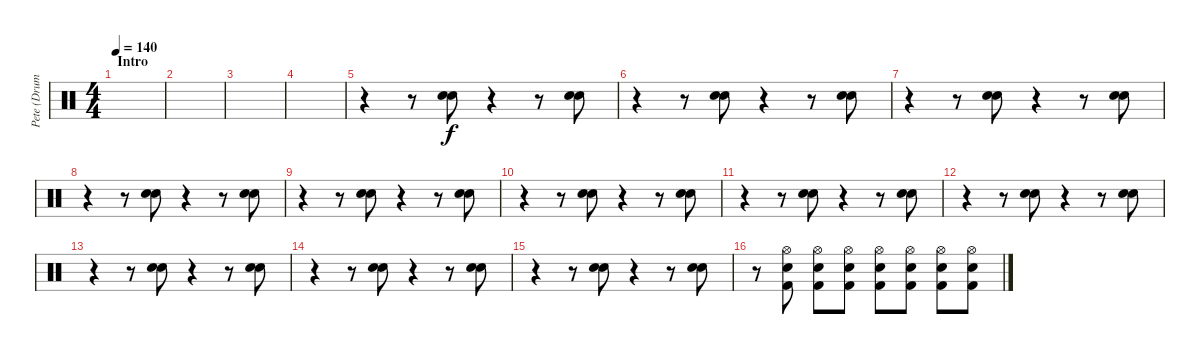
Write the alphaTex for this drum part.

\track ("Pete (Drums)" "Pete (Drum") {instrument percussion}
\staff {score}
\articulation defaults
\ts (4 4)
\section ("" "Intro")
\tempo 140
\clef neutral
\ks c
|
|
|
|
r.4 r.8 ("Snare (hit) 2" "Snare (hit) 2").8 r.4 r.8 ("Snare (hit) 2" "Snare (hit) 2").8 |
r.4 r.8 ("Snare (hit) 2" "Snare (hit) 2").8 r.4 r.8 ("Snare (hit) 2" "Snare (hit) 2").8 |
r.4 r.8 ("Snare (hit) 2" "Snare (hit) 2").8 r.4 r.8 ("Snare (hit) 2" "Snare (hit) 2").8 |
r.4 r.8 ("Snare (hit) 2" "Snare (hit) 2").8 r.4 r.8 ("Snare (hit) 2" "Snare (hit) 2").8 |
r.4 r.8 ("Snare (hit) 2" "Snare (hit) 2").8 r.4 r.8 ("Snare (hit) 2" "Snare (hit) 2").8 |
r.4 r.8 ("Snare (hit) 2" "Snare (hit) 2").8 r.4 r.8 ("Snare (hit) 2" "Snare (hit) 2").8 |
r.4 r.8 ("Snare (hit) 2" "Snare (hit) 2").8 r.4 r.8 ("Snare (hit) 2" "Snare (hit) 2").8 |
r.4 r.8 ("Snare (hit) 2" "Snare (hit) 2").8 r.4 r.8 ("Snare (hit) 2" "Snare (hit) 2").8 |
r.4 r.8 ("Snare (hit) 2" "Snare (hit) 2").8 r.4 r.8 ("Snare (hit) 2" "Snare (hit) 2").8 |
r.4 r.8 ("Snare (hit) 2" "Snare (hit) 2").8 r.4 r.8 ("Snare (hit) 2" "Snare (hit) 2").8 |
r.4 r.8 ("Snare (hit) 2" "Snare (hit) 2").8 r.4 r.8 ("Snare (hit) 2" "Snare (hit) 2").8 |
r.8 ("Snare (hit) 2" "Kick (hit) 2" "Hi-Hat (open)").8 ("Snare (hit) 2" "Kick (hit) 2" "Hi-Hat (open)").8 ("Snare (hit) 2" "Kick (hit) 2" "Hi-Hat (open)").8 ("Snare (hit) 2" "Kick (hit) 2" "Hi-Hat (open)").8 ("Snare (hit) 2" "Kick (hit) 2" "Hi-Hat (open)").8 ("Snare (hit) 2" "Kick (hit) 2" "Hi-Hat (open)").8 ("Snare (hit) 2" "Kick (hit) 2" "Hi-Hat (open)").8
